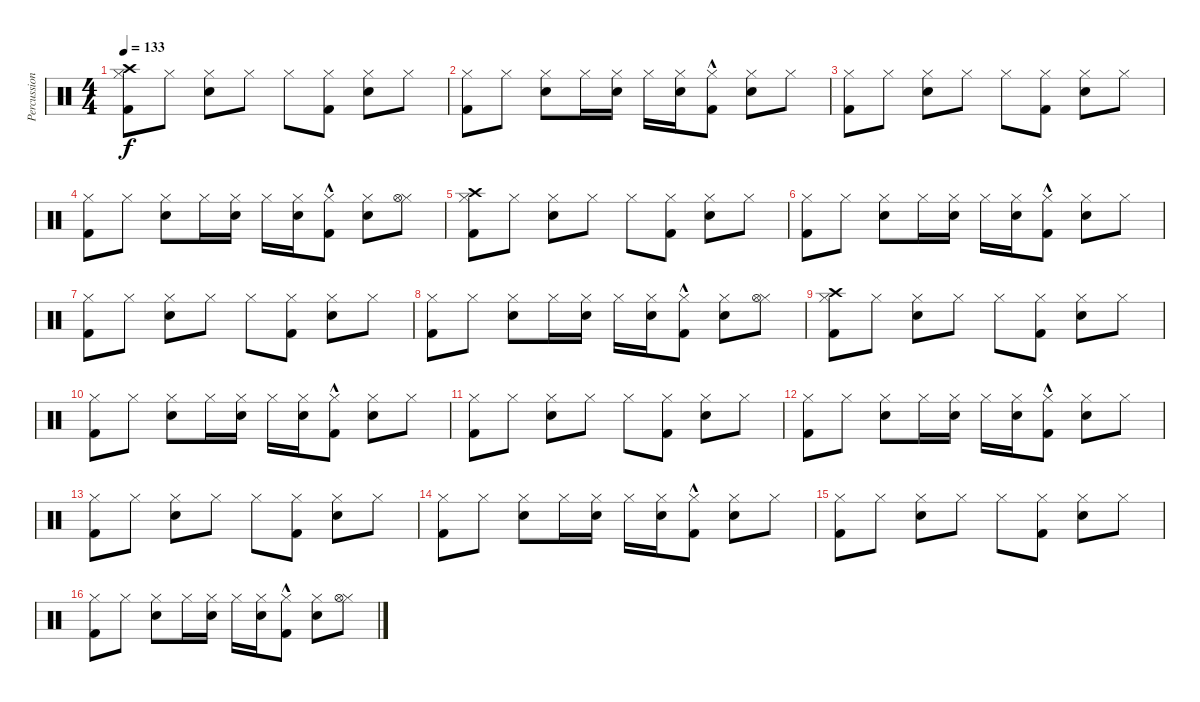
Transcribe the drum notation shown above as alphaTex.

\track ("Percussion" "Percussion") {instrument percussion}
\staff {score}
\articulation defaults
\ts (4 4)
\tempo 133
\clef neutral
\ks c
("Hi-Hat (closed)" "Crash high (hit)" "Kick (hit) 2").8{dy f} "Hi-Hat (closed)".8 ("Hi-Hat (closed)" "Snare (hit) 2").8 "Hi-Hat (closed)".8 "Hi-Hat (closed)".8 ("Hi-Hat (closed)" "Kick (hit) 2").8 ("Hi-Hat (closed)" "Snare (hit) 2").8 "Hi-Hat (closed)".8 |
("Hi-Hat (closed)" "Kick (hit) 2").8 "Hi-Hat (closed)".8 ("Hi-Hat (closed)" "Snare (hit) 2").8 "Hi-Hat (closed)".16 ("Hi-Hat (closed)" "Snare (hit) 2").16 "Hi-Hat (closed)".16 ("Hi-Hat (closed)" "Snare (hit) 2").16 ("Hi-Hat (closed)" "Kick (hit) 2"{hac}).8 ("Hi-Hat (closed)" "Snare (hit) 2").8 "Hi-Hat (closed)".8 |
("Hi-Hat (closed)" "Kick (hit) 2").8 "Hi-Hat (closed)".8 ("Hi-Hat (closed)" "Snare (hit) 2").8 "Hi-Hat (closed)".8 "Hi-Hat (closed)".8 ("Hi-Hat (closed)" "Kick (hit) 2").8 ("Hi-Hat (closed)" "Snare (hit) 2").8 "Hi-Hat (closed)".8 |
("Hi-Hat (closed)" "Kick (hit) 2").8 "Hi-Hat (closed)".8 ("Hi-Hat (closed)" "Snare (hit) 2").8 "Hi-Hat (closed)".16 ("Hi-Hat (closed)" "Snare (hit) 2").16 "Hi-Hat (closed)".16 ("Hi-Hat (closed)" "Snare (hit) 2").16 ("Hi-Hat (closed)" "Kick (hit) 2"{hac}).8 ("Hi-Hat (closed)" "Snare (hit) 2").8 ("Hi-Hat (closed)" "Hi-Hat (open)").8 |
("Hi-Hat (closed)" "Crash high (hit)" "Kick (hit) 2").8 "Hi-Hat (closed)".8 ("Hi-Hat (closed)" "Snare (hit) 2").8 "Hi-Hat (closed)".8 "Hi-Hat (closed)".8 ("Hi-Hat (closed)" "Kick (hit) 2").8 ("Hi-Hat (closed)" "Snare (hit) 2").8 "Hi-Hat (closed)".8 |
("Hi-Hat (closed)" "Kick (hit) 2").8 "Hi-Hat (closed)".8 ("Hi-Hat (closed)" "Snare (hit) 2").8 "Hi-Hat (closed)".16 ("Hi-Hat (closed)" "Snare (hit) 2").16 "Hi-Hat (closed)".16 ("Hi-Hat (closed)" "Snare (hit) 2").16 ("Hi-Hat (closed)" "Kick (hit) 2"{hac}).8 ("Hi-Hat (closed)" "Snare (hit) 2").8 "Hi-Hat (closed)".8 |
("Hi-Hat (closed)" "Kick (hit) 2").8 "Hi-Hat (closed)".8 ("Hi-Hat (closed)" "Snare (hit) 2").8 "Hi-Hat (closed)".8 "Hi-Hat (closed)".8 ("Hi-Hat (closed)" "Kick (hit) 2").8 ("Hi-Hat (closed)" "Snare (hit) 2").8 "Hi-Hat (closed)".8 |
("Hi-Hat (closed)" "Kick (hit) 2").8 "Hi-Hat (closed)".8 ("Hi-Hat (closed)" "Snare (hit) 2").8 "Hi-Hat (closed)".16 ("Hi-Hat (closed)" "Snare (hit) 2").16 "Hi-Hat (closed)".16 ("Hi-Hat (closed)" "Snare (hit) 2").16 ("Hi-Hat (closed)" "Kick (hit) 2"{hac}).8 ("Hi-Hat (closed)" "Snare (hit) 2").8 ("Hi-Hat (closed)" "Hi-Hat (open)").8 |
("Hi-Hat (closed)" "Crash high (hit)" "Kick (hit) 2").8 "Hi-Hat (closed)".8 ("Hi-Hat (closed)" "Snare (hit) 2").8 "Hi-Hat (closed)".8 "Hi-Hat (closed)".8 ("Hi-Hat (closed)" "Kick (hit) 2").8 ("Hi-Hat (closed)" "Snare (hit) 2").8 "Hi-Hat (closed)".8 |
("Hi-Hat (closed)" "Kick (hit) 2").8 "Hi-Hat (closed)".8 ("Hi-Hat (closed)" "Snare (hit) 2").8 "Hi-Hat (closed)".16 ("Hi-Hat (closed)" "Snare (hit) 2").16 "Hi-Hat (closed)".16 ("Hi-Hat (closed)" "Snare (hit) 2").16 ("Hi-Hat (closed)" "Kick (hit) 2"{hac}).8 ("Hi-Hat (closed)" "Snare (hit) 2").8 "Hi-Hat (closed)".8 |
("Hi-Hat (closed)" "Kick (hit) 2").8 "Hi-Hat (closed)".8 ("Hi-Hat (closed)" "Snare (hit) 2").8 "Hi-Hat (closed)".8 "Hi-Hat (closed)".8 ("Hi-Hat (closed)" "Kick (hit) 2").8 ("Hi-Hat (closed)" "Snare (hit) 2").8 "Hi-Hat (closed)".8 |
("Hi-Hat (closed)" "Kick (hit) 2").8 "Hi-Hat (closed)".8 ("Hi-Hat (closed)" "Snare (hit) 2").8 "Hi-Hat (closed)".16 ("Hi-Hat (closed)" "Snare (hit) 2").16 "Hi-Hat (closed)".16 ("Hi-Hat (closed)" "Snare (hit) 2").16 ("Hi-Hat (closed)" "Kick (hit) 2"{hac}).8 ("Hi-Hat (closed)" "Snare (hit) 2").8 "Hi-Hat (closed)".8 |
("Hi-Hat (closed)" "Kick (hit) 2").8 "Hi-Hat (closed)".8 ("Hi-Hat (closed)" "Snare (hit) 2").8 "Hi-Hat (closed)".8 "Hi-Hat (closed)".8 ("Hi-Hat (closed)" "Kick (hit) 2").8 ("Hi-Hat (closed)" "Snare (hit) 2").8 "Hi-Hat (closed)".8 |
("Hi-Hat (closed)" "Kick (hit) 2").8 "Hi-Hat (closed)".8 ("Hi-Hat (closed)" "Snare (hit) 2").8 "Hi-Hat (closed)".16 ("Hi-Hat (closed)" "Snare (hit) 2").16 "Hi-Hat (closed)".16 ("Hi-Hat (closed)" "Snare (hit) 2").16 ("Hi-Hat (closed)" "Kick (hit) 2"{hac}).8 ("Hi-Hat (closed)" "Snare (hit) 2").8 "Hi-Hat (closed)".8 |
("Hi-Hat (closed)" "Kick (hit) 2").8 "Hi-Hat (closed)".8 ("Hi-Hat (closed)" "Snare (hit) 2").8 "Hi-Hat (closed)".8 "Hi-Hat (closed)".8 ("Hi-Hat (closed)" "Kick (hit) 2").8 ("Hi-Hat (closed)" "Snare (hit) 2").8 "Hi-Hat (closed)".8 |
("Hi-Hat (closed)" "Kick (hit) 2").8 "Hi-Hat (closed)".8 ("Hi-Hat (closed)" "Snare (hit) 2").8 "Hi-Hat (closed)".16 ("Hi-Hat (closed)" "Snare (hit) 2").16 "Hi-Hat (closed)".16 ("Hi-Hat (closed)" "Snare (hit) 2").16 ("Hi-Hat (closed)" "Kick (hit) 2"{hac}).8 ("Hi-Hat (closed)" "Snare (hit) 2").8 ("Hi-Hat (closed)" "Hi-Hat (open)").8
